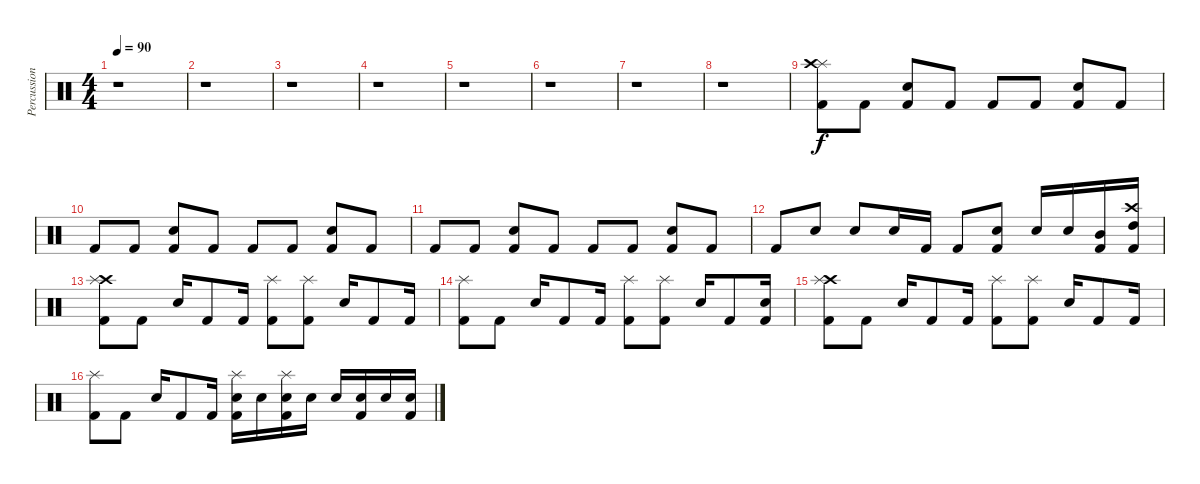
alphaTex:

\track ("Percussion" "Percussion") {instrument percussion}
\staff {score}
\articulation defaults
\ts (4 4)
\tempo 90
\clef neutral
\ks c
r.1{dy f} |
r.1 |
r.1 |
r.1 |
r.1 |
r.1 |
r.1 |
r.1 |
("Splash (hit)" "Kick (hit) 2" "Crash high (hit)").8 "Kick (hit) 2".8 ("Electric Snare (hit)" "Kick (hit) 2").8 "Kick (hit) 2".8 "Kick (hit) 2".8 "Kick (hit) 2".8 ("Electric Snare (hit)" "Kick (hit) 2").8 "Kick (hit) 2".8 |
"Kick (hit) 2".8 "Kick (hit) 2".8 ("Electric Snare (hit)" "Kick (hit) 2").8 "Kick (hit) 2".8 "Kick (hit) 2".8 "Kick (hit) 2".8 ("Electric Snare (hit)" "Kick (hit) 2").8 "Kick (hit) 2".8 |
"Kick (hit) 2".8 "Kick (hit) 2".8 ("Electric Snare (hit)" "Kick (hit) 2").8 "Kick (hit) 2".8 "Kick (hit) 2".8 "Kick (hit) 2".8 ("Electric Snare (hit)" "Kick (hit) 2").8 "Kick (hit) 2".8 |
"Kick (hit) 2".8 "Electric Snare (hit)".8 "Electric Snare (hit)".8 "Electric Snare (hit)".16 "Kick (hit) 2".16 "Kick (hit) 2".8 ("Electric Snare (hit)" "Kick (hit) 2").8 "Electric Snare (hit)".16 "Electric Snare (hit)".16 ("Mid Tom (hit)" "Kick (hit) 2").16 ("High Tom (hit)" "Kick (hit) 2" "Crash high (hit)").16 |
("Crash high (hit)" "Kick (hit) 2" "Splash (hit)").8 "Kick (hit) 2".8 "Electric Snare (hit)".16 "Kick (hit) 2".8 "Kick (hit) 2".16 ("Kick (hit) 2" "Splash (hit)").8 ("Kick (hit) 2" "Splash (hit)").8 "Electric Snare (hit)".16 "Kick (hit) 2".8 "Kick (hit) 2".16 |
("Kick (hit) 2" "Splash (hit)").8 "Kick (hit) 2".8 "Electric Snare (hit)".16 "Kick (hit) 2".8 "Kick (hit) 2".16 ("Kick (hit) 2" "Splash (hit)").8 ("Kick (hit) 2" "Splash (hit)").8 "Electric Snare (hit)".16 "Kick (hit) 2".8 ("Electric Snare (hit)" "Kick (hit) 2").16 |
("Crash high (hit)" "Kick (hit) 2" "Splash (hit)").8 "Kick (hit) 2".8 "Electric Snare (hit)".16 "Kick (hit) 2".8 "Kick (hit) 2".16 ("Kick (hit) 2" "Splash (hit)").8 ("Kick (hit) 2" "Splash (hit)").8 "Electric Snare (hit)".16 "Kick (hit) 2".8 "Kick (hit) 2".16 |
("Kick (hit) 2" "Splash (hit)").8 "Kick (hit) 2".8 "Electric Snare (hit)".16 "Kick (hit) 2".8 "Kick (hit) 2".16 ("Electric Snare (hit)" "Kick (hit) 2" "Splash (hit)").16 "Electric Snare (hit)".16 ("Electric Snare (hit)" "Kick (hit) 2" "Splash (hit)").16 "Electric Snare (hit)".16 "Electric Snare (hit)".16 ("Electric Snare (hit)" "Kick (hit) 2").16 "Electric Snare (hit)".16 ("Electric Snare (hit)" "Kick (hit) 2").16
